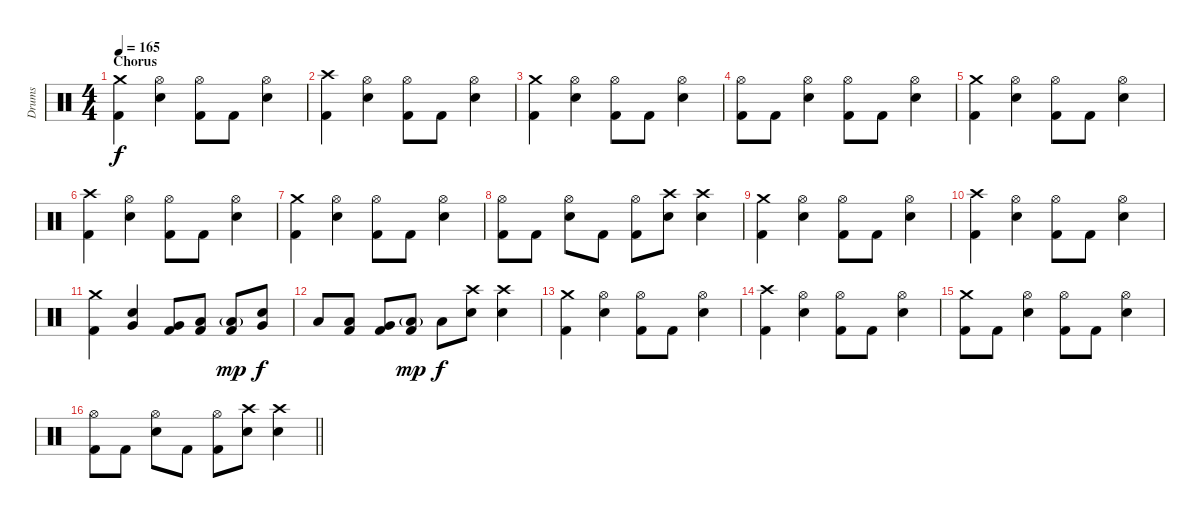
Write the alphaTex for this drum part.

\track ("Drums" "Drums") {instrument percussion}
\staff {score}
\articulation defaults
\ts (4 4)
\section ("" "Chorus")
\tempo 165
\clef neutral
\ks c
("Crash medium (hit)" "Kick (hit) 2").4{dy f} ("Hi-Hat (open)" "Electric Snare (hit)").4 ("Hi-Hat (open)" "Kick (hit) 2").8 "Kick (hit) 2".8 ("Hi-Hat (open)" "Electric Snare (hit)").4 |
("Crash high (hit)" "Kick (hit) 2").4 ("Hi-Hat (open)" "Electric Snare (hit)").4 ("Hi-Hat (open)" "Kick (hit) 2").8 "Kick (hit) 2".8 ("Hi-Hat (open)" "Electric Snare (hit)").4 |
("Crash medium (hit)" "Kick (hit) 2").4 ("Hi-Hat (open)" "Electric Snare (hit)").4 ("Hi-Hat (open)" "Kick (hit) 2").8 "Kick (hit) 2".8 ("Hi-Hat (open)" "Electric Snare (hit)").4 |
("Hi-Hat (open)" "Kick (hit) 2").8 "Kick (hit) 2".8 ("Hi-Hat (open)" "Electric Snare (hit)").4 ("Hi-Hat (open)" "Kick (hit) 2").8 "Kick (hit) 2".8 ("Hi-Hat (open)" "Electric Snare (hit)").4 |
("Crash medium (hit)" "Kick (hit) 2").4 ("Hi-Hat (open)" "Electric Snare (hit)").4 ("Hi-Hat (open)" "Kick (hit) 2").8 "Kick (hit) 2".8 ("Hi-Hat (open)" "Electric Snare (hit)").4 |
("Crash high (hit)" "Kick (hit) 2").4 ("Hi-Hat (open)" "Electric Snare (hit)").4 ("Hi-Hat (open)" "Kick (hit) 2").8 "Kick (hit) 2".8 ("Hi-Hat (open)" "Electric Snare (hit)").4 |
("Crash medium (hit)" "Kick (hit) 2").4 ("Hi-Hat (open)" "Electric Snare (hit)").4 ("Hi-Hat (open)" "Kick (hit) 2").8 "Kick (hit) 2".8 ("Hi-Hat (open)" "Electric Snare (hit)").4 |
("Hi-Hat (open)" "Kick (hit) 2").8 "Kick (hit) 2".8 ("Hi-Hat (open)" "Electric Snare (hit)").8 "Kick (hit) 2".8 ("Hi-Hat (open)" "Kick (hit) 2").8 ("Crash high (hit)" "Electric Snare (hit)").8 ("Crash high (hit)" "Electric Snare (hit)").4 |
("Crash medium (hit)" "Kick (hit) 2").4 ("Hi-Hat (open)" "Electric Snare (hit)").4 ("Hi-Hat (open)" "Kick (hit) 2").8 "Kick (hit) 2".8 ("Hi-Hat (open)" "Electric Snare (hit)").4 |
("Crash high (hit)" "Kick (hit) 2").4 ("Hi-Hat (open)" "Electric Snare (hit)").4 ("Hi-Hat (open)" "Kick (hit) 2").8 "Kick (hit) 2".8 ("Hi-Hat (open)" "Electric Snare (hit)").4 |
("Crash medium (hit)" "Kick (hit) 2").4 ("Very Low Tom (hit)" "Electric Snare (hit)").4 ("Very Low Tom (hit)" "Kick (hit) 2").8 ("Low Floor Tom (hit)" "Kick (hit) 2").8 ("Low Floor Tom (hit)"{g} "Kick (hit) 2").8{dy mp} ("Very Low Tom (hit)" "Electric Snare (hit)").8{dy f} |
"Low Floor Tom (hit)".8 ("Low Floor Tom (hit)" "Kick (hit) 2").8 ("Very Low Tom (hit)" "Kick (hit) 2").8 ("Low Floor Tom (hit)"{g} "Kick (hit) 2").8{dy mp} "Low Floor Tom (hit)".8{dy f} ("Crash high (hit)" "Electric Snare (hit)").8 ("Crash high (hit)" "Electric Snare (hit)").4 |
("Crash medium (hit)" "Kick (hit) 2").4 ("Hi-Hat (open)" "Electric Snare (hit)").4 ("Hi-Hat (open)" "Kick (hit) 2").8 "Kick (hit) 2".8 ("Hi-Hat (open)" "Electric Snare (hit)").4 |
("Crash high (hit)" "Kick (hit) 2").4 ("Hi-Hat (open)" "Electric Snare (hit)").4 ("Hi-Hat (open)" "Kick (hit) 2").8 "Kick (hit) 2".8 ("Hi-Hat (open)" "Electric Snare (hit)").4 |
("Crash medium (hit)" "Kick (hit) 2").8 "Kick (hit) 2".8 ("Hi-Hat (open)" "Electric Snare (hit)").4 ("Hi-Hat (open)" "Kick (hit) 2").8 "Kick (hit) 2".8 ("Hi-Hat (open)" "Electric Snare (hit)").4 |
\barLineRight lightlight
("Hi-Hat (open)" "Kick (hit) 2").8 "Kick (hit) 2".8 ("Hi-Hat (open)" "Electric Snare (hit)").8 "Kick (hit) 2".8 ("Hi-Hat (open)" "Kick (hit) 2").8 ("Crash high (hit)" "Electric Snare (hit)").8 ("Crash high (hit)" "Electric Snare (hit)").4
